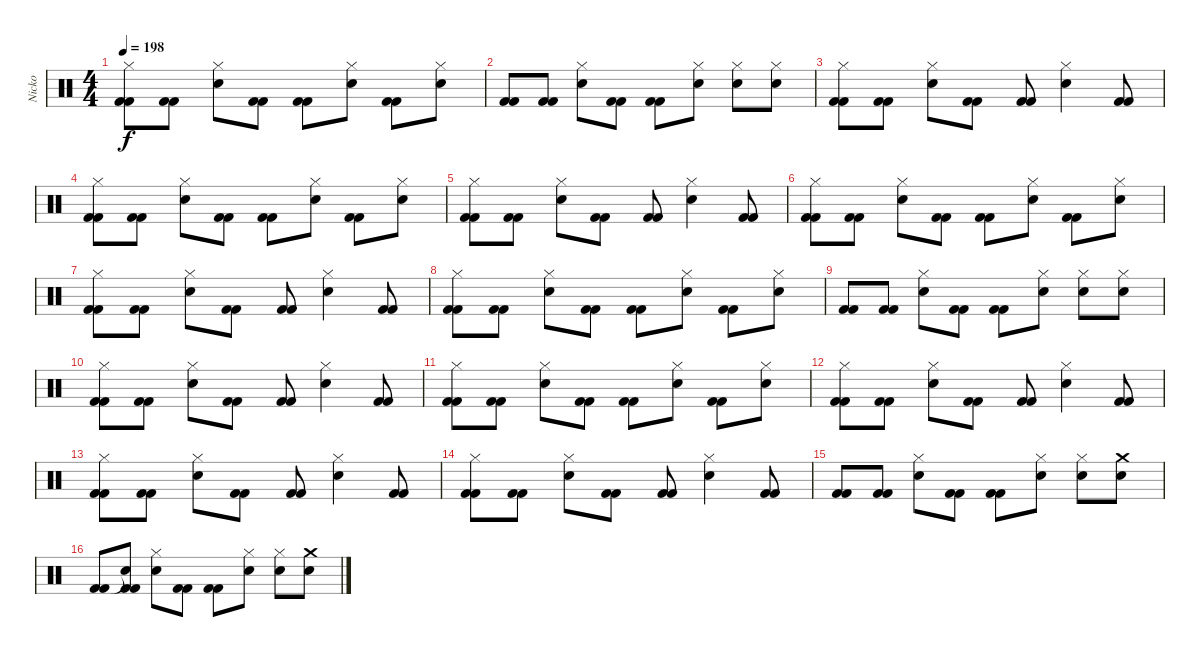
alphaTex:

\track ("Nicko" "Nicko") {instrument percussion}
\staff {score}
\articulation defaults
\ts (4 4)
\tempo 198
\clef neutral
\ks c
("Hi-Hat (closed)" "Kick (hit) 2" "Kick (hit) 2").8{dy f} ("Kick (hit) 2" "Kick (hit) 2").8 ("Hi-Hat (closed)" "Electric Snare (hit)").8 ("Kick (hit) 2" "Kick (hit) 2").8 ("Kick (hit) 2" "Kick (hit) 2").8 ("Hi-Hat (closed)" "Electric Snare (hit)").8 ("Kick (hit) 2" "Kick (hit) 2").8 ("Hi-Hat (closed)" "Electric Snare (hit)").8 |
("Kick (hit) 2" "Kick (hit) 2").8 ("Kick (hit) 2" "Kick (hit) 2").8 ("Hi-Hat (closed)" "Electric Snare (hit)").8 ("Kick (hit) 2" "Kick (hit) 2").8 ("Kick (hit) 2" "Kick (hit) 2").8 ("Hi-Hat (closed)" "Electric Snare (hit)").8 ("Hi-Hat (closed)" "Electric Snare (hit)").8 ("Hi-Hat (closed)" "Electric Snare (hit)").8 |
("Hi-Hat (closed)" "Kick (hit) 2" "Kick (hit) 2").8 ("Kick (hit) 2" "Kick (hit) 2").8 ("Hi-Hat (closed)" "Electric Snare (hit)").8 ("Kick (hit) 2" "Kick (hit) 2").8 ("Kick (hit) 2" "Kick (hit) 2").8 ("Hi-Hat (closed)" "Electric Snare (hit)").4 ("Kick (hit) 2" "Kick (hit) 2").8 |
("Hi-Hat (closed)" "Kick (hit) 2" "Kick (hit) 2").8 ("Kick (hit) 2" "Kick (hit) 2").8 ("Hi-Hat (closed)" "Electric Snare (hit)").8 ("Kick (hit) 2" "Kick (hit) 2").8 ("Kick (hit) 2" "Kick (hit) 2").8 ("Hi-Hat (closed)" "Electric Snare (hit)").8 ("Kick (hit) 2" "Kick (hit) 2").8 ("Hi-Hat (closed)" "Electric Snare (hit)").8 |
("Hi-Hat (closed)" "Kick (hit) 2" "Kick (hit) 2").8 ("Kick (hit) 2" "Kick (hit) 2").8 ("Hi-Hat (closed)" "Electric Snare (hit)").8 ("Kick (hit) 2" "Kick (hit) 2").8 ("Kick (hit) 2" "Kick (hit) 2").8 ("Hi-Hat (closed)" "Electric Snare (hit)").4 ("Kick (hit) 2" "Kick (hit) 2").8 |
("Hi-Hat (closed)" "Kick (hit) 2" "Kick (hit) 2").8 ("Kick (hit) 2" "Kick (hit) 2").8 ("Hi-Hat (closed)" "Electric Snare (hit)").8 ("Kick (hit) 2" "Kick (hit) 2").8 ("Kick (hit) 2" "Kick (hit) 2").8 ("Hi-Hat (closed)" "Electric Snare (hit)").8 ("Kick (hit) 2" "Kick (hit) 2").8 ("Hi-Hat (closed)" "Electric Snare (hit)").8 |
("Hi-Hat (closed)" "Kick (hit) 2" "Kick (hit) 2").8 ("Kick (hit) 2" "Kick (hit) 2").8 ("Hi-Hat (closed)" "Electric Snare (hit)").8 ("Kick (hit) 2" "Kick (hit) 2").8 ("Kick (hit) 2" "Kick (hit) 2").8 ("Hi-Hat (closed)" "Electric Snare (hit)").4 ("Kick (hit) 2" "Kick (hit) 2").8 |
("Hi-Hat (closed)" "Kick (hit) 2" "Kick (hit) 2").8 ("Kick (hit) 2" "Kick (hit) 2").8 ("Hi-Hat (closed)" "Electric Snare (hit)").8 ("Kick (hit) 2" "Kick (hit) 2").8 ("Kick (hit) 2" "Kick (hit) 2").8 ("Hi-Hat (closed)" "Electric Snare (hit)").8 ("Kick (hit) 2" "Kick (hit) 2").8 ("Hi-Hat (closed)" "Electric Snare (hit)").8 |
("Kick (hit) 2" "Kick (hit) 2").8 ("Kick (hit) 2" "Kick (hit) 2").8 ("Hi-Hat (closed)" "Electric Snare (hit)").8 ("Kick (hit) 2" "Kick (hit) 2").8 ("Kick (hit) 2" "Kick (hit) 2").8 ("Hi-Hat (closed)" "Electric Snare (hit)").8 ("Hi-Hat (closed)" "Electric Snare (hit)").8 ("Hi-Hat (closed)" "Electric Snare (hit)").8 |
("Hi-Hat (closed)" "Kick (hit) 2" "Kick (hit) 2").8 ("Kick (hit) 2" "Kick (hit) 2").8 ("Hi-Hat (closed)" "Electric Snare (hit)").8 ("Kick (hit) 2" "Kick (hit) 2").8 ("Kick (hit) 2" "Kick (hit) 2").8 ("Hi-Hat (closed)" "Electric Snare (hit)").4 ("Kick (hit) 2" "Kick (hit) 2").8 |
("Hi-Hat (closed)" "Kick (hit) 2" "Kick (hit) 2").8 ("Kick (hit) 2" "Kick (hit) 2").8 ("Hi-Hat (closed)" "Electric Snare (hit)").8 ("Kick (hit) 2" "Kick (hit) 2").8 ("Kick (hit) 2" "Kick (hit) 2").8 ("Hi-Hat (closed)" "Electric Snare (hit)").8 ("Kick (hit) 2" "Kick (hit) 2").8 ("Hi-Hat (closed)" "Electric Snare (hit)").8 |
("Hi-Hat (closed)" "Kick (hit) 2" "Kick (hit) 2").8 ("Kick (hit) 2" "Kick (hit) 2").8 ("Hi-Hat (closed)" "Electric Snare (hit)").8 ("Kick (hit) 2" "Kick (hit) 2").8 ("Kick (hit) 2" "Kick (hit) 2").8 ("Hi-Hat (closed)" "Electric Snare (hit)").4 ("Kick (hit) 2" "Kick (hit) 2").8 |
("Hi-Hat (closed)" "Kick (hit) 2" "Kick (hit) 2").8 ("Kick (hit) 2" "Kick (hit) 2").8 ("Hi-Hat (closed)" "Electric Snare (hit)").8 ("Kick (hit) 2" "Kick (hit) 2").8 ("Kick (hit) 2" "Kick (hit) 2").8 ("Hi-Hat (closed)" "Electric Snare (hit)").4 ("Kick (hit) 2" "Kick (hit) 2").8 |
("Hi-Hat (closed)" "Kick (hit) 2" "Kick (hit) 2").8 ("Kick (hit) 2" "Kick (hit) 2").8 ("Hi-Hat (closed)" "Electric Snare (hit)").8 ("Kick (hit) 2" "Kick (hit) 2").8 ("Kick (hit) 2" "Kick (hit) 2").8 ("Hi-Hat (closed)" "Electric Snare (hit)").4 ("Kick (hit) 2" "Kick (hit) 2").8 |
("Kick (hit) 2" "Kick (hit) 2").8 ("Kick (hit) 2" "Kick (hit) 2").8 ("Hi-Hat (closed)" "Electric Snare (hit)").8 ("Kick (hit) 2" "Kick (hit) 2").8 ("Kick (hit) 2" "Kick (hit) 2").8 ("Hi-Hat (closed)" "Electric Snare (hit)").8 ("Hi-Hat (closed)" "Electric Snare (hit)").8 ("Crash medium (hit)" "Electric Snare (hit)").8 |
("Kick (hit) 2" "Kick (hit) 2").8 ("Snare (hit)"{t} "Kick (hit) 2" "Kick (hit) 2").8 ("Hi-Hat (closed)" "Electric Snare (hit)").8 ("Kick (hit) 2" "Kick (hit) 2").8 ("Kick (hit) 2" "Kick (hit) 2").8 ("Hi-Hat (closed)" "Electric Snare (hit)").8 ("Hi-Hat (closed)" "Electric Snare (hit)").8 ("Crash medium (hit)" "Electric Snare (hit)").8
